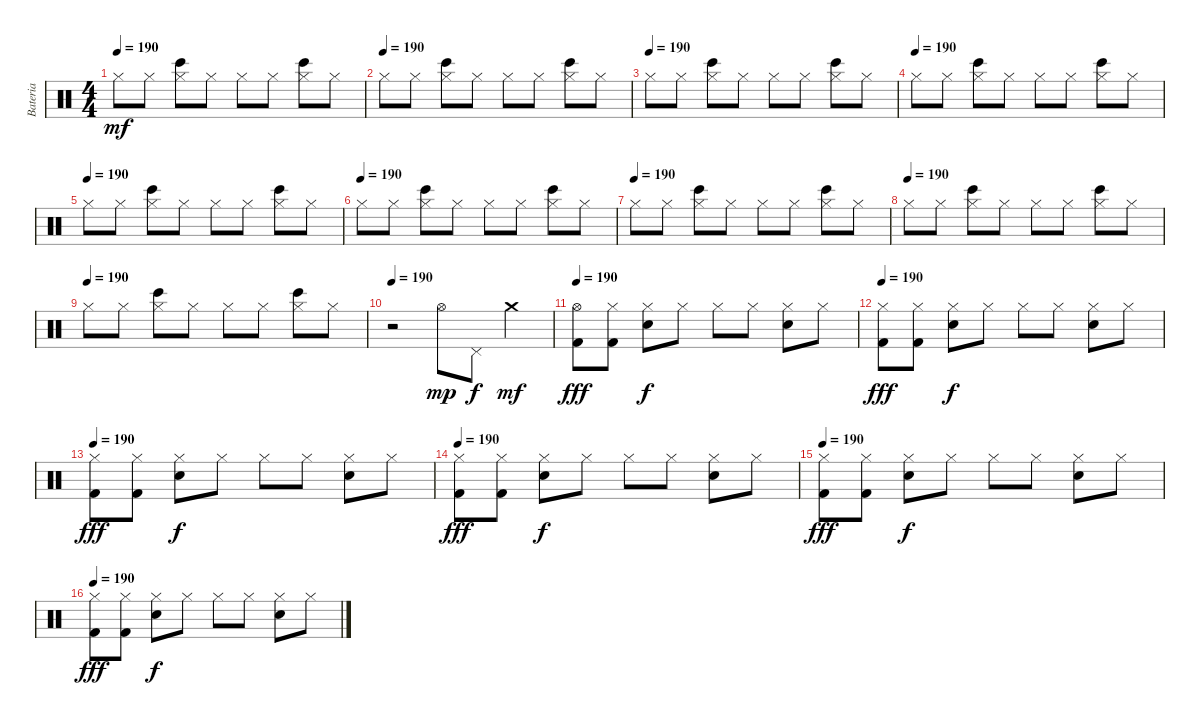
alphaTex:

\track ("Bateria" "Bateria") {instrument percussion}
\staff {score}
\articulation defaults
\ts (4 4)
\tempo 190
\clef neutral
\ks c "Hi-Hat (closed)".8{dy mf} "Hi-Hat (closed)".8
("Hi-Hat (closed)" "Bongo High (hit)").8 "Hi-Hat (closed)".8 "Hi-Hat (closed)".8 "Hi-Hat (closed)".8 ("Hi-Hat (closed)" "Bongo High (hit)").8 "Hi-Hat (closed)".8 |
\tempo (190)
"Hi-Hat (closed)".8 "Hi-Hat (closed)".8 ("Hi-Hat (closed)" "Bongo High (hit)").8 "Hi-Hat (closed)".8 "Hi-Hat (closed)".8 "Hi-Hat (closed)".8 ("Hi-Hat (closed)" "Bongo High (hit)").8 "Hi-Hat (closed)".8 |
\tempo (190)
"Hi-Hat (closed)".8 "Hi-Hat (closed)".8 ("Hi-Hat (closed)" "Bongo High (hit)").8 "Hi-Hat (closed)".8 "Hi-Hat (closed)".8 "Hi-Hat (closed)".8 ("Hi-Hat (closed)" "Bongo High (hit)").8 "Hi-Hat (closed)".8 |
\tempo (190)
"Hi-Hat (closed)".8 "Hi-Hat (closed)".8 ("Hi-Hat (closed)" "Bongo High (hit)").8 "Hi-Hat (closed)".8 "Hi-Hat (closed)".8 "Hi-Hat (closed)".8 ("Hi-Hat (closed)" "Bongo High (hit)").8 "Hi-Hat (closed)".8 |
\tempo (190)
"Hi-Hat (closed)".8 "Hi-Hat (closed)".8 ("Hi-Hat (closed)" "Bongo High (hit)").8 "Hi-Hat (closed)".8 "Hi-Hat (closed)".8 "Hi-Hat (closed)".8 ("Hi-Hat (closed)" "Bongo High (hit)").8 "Hi-Hat (closed)".8 |
\tempo (190)
"Hi-Hat (closed)".8 "Hi-Hat (closed)".8 ("Hi-Hat (closed)" "Bongo High (hit)").8 "Hi-Hat (closed)".8 "Hi-Hat (closed)".8 "Hi-Hat (closed)".8 ("Hi-Hat (closed)" "Bongo High (hit)").8 "Hi-Hat (closed)".8 |
\tempo (190)
"Hi-Hat (closed)".8 "Hi-Hat (closed)".8 ("Hi-Hat (closed)" "Bongo High (hit)").8 "Hi-Hat (closed)".8 "Hi-Hat (closed)".8 "Hi-Hat (closed)".8 ("Hi-Hat (closed)" "Bongo High (hit)").8 "Hi-Hat (closed)".8 |
\tempo (190)
"Hi-Hat (closed)".8 "Hi-Hat (closed)".8 ("Hi-Hat (closed)" "Bongo High (hit)").8 "Hi-Hat (closed)".8 "Hi-Hat (closed)".8 "Hi-Hat (closed)".8 ("Hi-Hat (closed)" "Bongo High (hit)").8 "Hi-Hat (closed)".8 |
\tempo (190)
"Hi-Hat (closed)".8 "Hi-Hat (closed)".8 ("Hi-Hat (closed)" "Bongo High (hit)").8 "Hi-Hat (closed)".8 "Hi-Hat (closed)".8 "Hi-Hat (closed)".8 ("Hi-Hat (closed)" "Bongo High (hit)").8 "Hi-Hat (closed)".8 |
\tempo 190
r.2 "Hi-Hat (open)".8{dy mp} "Pedal Hi-Hat (hit)".8{dy f} "Crash medium (hit)".4{dy mf} |
\tempo 190
("Hi-Hat (open)" "Kick (hit) 2").8{dy fff} ("Hi-Hat (closed)" "Kick (hit) 2").8 ("Hi-Hat (closed)" "Electric Snare (hit)").8{dy f} "Hi-Hat (closed)".8 "Hi-Hat (closed)".8 "Hi-Hat (closed)".8 ("Hi-Hat (closed)" "Electric Snare (hit)").8 "Hi-Hat (closed)".8 |
\tempo 190
("Hi-Hat (closed)" "Kick (hit) 2").8{dy fff} ("Hi-Hat (closed)" "Kick (hit) 2").8 ("Hi-Hat (closed)" "Electric Snare (hit)").8{dy f} "Hi-Hat (closed)".8 "Hi-Hat (closed)".8 "Hi-Hat (closed)".8 ("Hi-Hat (closed)" "Electric Snare (hit)").8 "Hi-Hat (closed)".8 |
\tempo 190
("Hi-Hat (closed)" "Kick (hit) 2").8{dy fff} ("Hi-Hat (closed)" "Kick (hit) 2").8 ("Hi-Hat (closed)" "Electric Snare (hit)").8{dy f} "Hi-Hat (closed)".8 "Hi-Hat (closed)".8 "Hi-Hat (closed)".8 ("Hi-Hat (closed)" "Electric Snare (hit)").8 "Hi-Hat (closed)".8 |
\tempo 190
("Hi-Hat (closed)" "Kick (hit) 2").8{dy fff} ("Hi-Hat (closed)" "Kick (hit) 2").8 ("Hi-Hat (closed)" "Electric Snare (hit)").8{dy f} "Hi-Hat (closed)".8 "Hi-Hat (closed)".8 "Hi-Hat (closed)".8 ("Hi-Hat (closed)" "Electric Snare (hit)").8 "Hi-Hat (closed)".8 |
\tempo 190
("Hi-Hat (closed)" "Kick (hit) 2").8{dy fff} ("Hi-Hat (closed)" "Kick (hit) 2").8 ("Hi-Hat (closed)" "Electric Snare (hit)").8{dy f} "Hi-Hat (closed)".8 "Hi-Hat (closed)".8 "Hi-Hat (closed)".8 ("Hi-Hat (closed)" "Electric Snare (hit)").8 "Hi-Hat (closed)".8 |
\tempo 190
("Hi-Hat (closed)" "Kick (hit) 2").8{dy fff} ("Hi-Hat (closed)" "Kick (hit) 2").8 ("Hi-Hat (closed)" "Electric Snare (hit)").8{dy f} "Hi-Hat (closed)".8 "Hi-Hat (closed)".8 "Hi-Hat (closed)".8 ("Hi-Hat (closed)" "Electric Snare (hit)").8 "Hi-Hat (closed)".8
